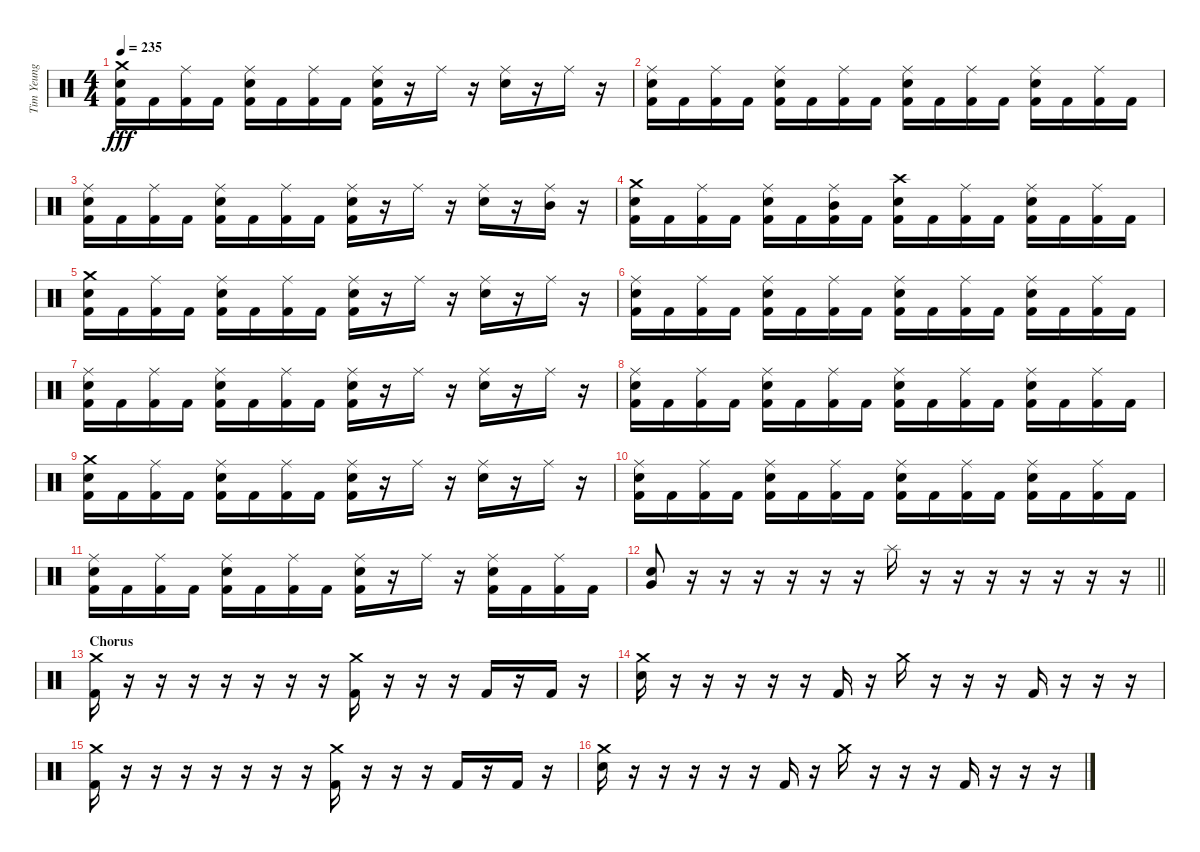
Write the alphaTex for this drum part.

\track ("Tim Yeung" "Tim Yeung") {instrument percussion}
\staff {score}
\articulation defaults
\ts (4 4)
\tempo 235
\clef neutral
\ks c
("Crash medium (hit)" "Electric Snare (hit)" "Kick (hit) 2").16{dy fff} "Kick (hit) 2".16 ("Ride (middle)" "Kick (hit) 2").16 "Kick (hit) 2".16 ("Ride (middle)" "Electric Snare (hit)" "Kick (hit) 2").16 "Kick (hit) 2".16 ("Ride (middle)" "Kick (hit) 2").16 "Kick (hit) 2".16 ("Ride (middle)" "Electric Snare (hit)" "Kick (hit) 2").16 r.16 "Ride (middle)".16 r.16 ("Ride (middle)" "Electric Snare (hit)").16 r.16 "Ride (middle)".16 r.16 |
("Ride (middle)" "Electric Snare (hit)" "Kick (hit) 2").16 "Kick (hit) 2".16 ("Ride (middle)" "Kick (hit) 2").16 "Kick (hit) 2".16 ("Ride (middle)" "Electric Snare (hit)" "Kick (hit) 2").16 "Kick (hit) 2".16 ("Ride (middle)" "Kick (hit) 2").16 "Kick (hit) 2".16 ("Ride (middle)" "Electric Snare (hit)" "Kick (hit) 2").16 "Kick (hit) 2".16 ("Ride (middle)" "Kick (hit) 2").16 "Kick (hit) 2".16 ("Ride (middle)" "Electric Snare (hit)" "Kick (hit) 2").16 "Kick (hit) 2".16 ("Ride (middle)" "Kick (hit) 2").16 "Kick (hit) 2".16 |
("Ride (middle)" "Electric Snare (hit)" "Kick (hit) 2").16 "Kick (hit) 2".16 ("Ride (middle)" "Kick (hit) 2").16 "Kick (hit) 2".16 ("Ride (middle)" "Electric Snare (hit)" "Kick (hit) 2").16 "Kick (hit) 2".16 ("Ride (middle)" "Kick (hit) 2").16 "Kick (hit) 2".16 ("Ride (middle)" "Electric Snare (hit)" "Kick (hit) 2").16 r.16 "Ride (middle)".16 r.16 ("Ride (middle)" "Electric Snare (hit)").16 r.16 ("Ride (middle)" "Mid Tom (hit)").16 r.16 |
("Crash medium (hit)" "Electric Snare (hit)" "Kick (hit) 2").16 "Kick (hit) 2".16 ("Ride (middle)" "Kick (hit) 2").16 "Kick (hit) 2".16 ("Ride (middle)" "Electric Snare (hit)" "Kick (hit) 2").16 "Kick (hit) 2".16 ("Ride (middle)" "Mid Tom (hit)" "Kick (hit) 2").16 "Kick (hit) 2".16 ("Crash high (hit)" "Electric Snare (hit)" "Kick (hit) 2").16 "Kick (hit) 2".16 ("Ride (middle)" "Kick (hit) 2").16 "Kick (hit) 2".16 ("Ride (middle)" "Electric Snare (hit)" "Kick (hit) 2").16 "Kick (hit) 2".16 ("Ride (middle)" "Kick (hit) 2").16 "Kick (hit) 2".16 |
("Crash medium (hit)" "Electric Snare (hit)" "Kick (hit) 2").16 "Kick (hit) 2".16 ("Ride (middle)" "Kick (hit) 2").16 "Kick (hit) 2".16 ("Ride (middle)" "Electric Snare (hit)" "Kick (hit) 2").16 "Kick (hit) 2".16 ("Ride (middle)" "Kick (hit) 2").16 "Kick (hit) 2".16 ("Ride (middle)" "Electric Snare (hit)" "Kick (hit) 2").16 r.16 "Ride (middle)".16 r.16 ("Ride (middle)" "Electric Snare (hit)").16 r.16 "Ride (middle)".16 r.16 |
("Ride (middle)" "Electric Snare (hit)" "Kick (hit) 2").16 "Kick (hit) 2".16 ("Ride (middle)" "Kick (hit) 2").16 "Kick (hit) 2".16 ("Ride (middle)" "Electric Snare (hit)" "Kick (hit) 2").16 "Kick (hit) 2".16 ("Ride (middle)" "Kick (hit) 2").16 "Kick (hit) 2".16 ("Ride (middle)" "Electric Snare (hit)" "Kick (hit) 2").16 "Kick (hit) 2".16 ("Ride (middle)" "Kick (hit) 2").16 "Kick (hit) 2".16 ("Ride (middle)" "Electric Snare (hit)" "Kick (hit) 2").16 "Kick (hit) 2".16 ("Ride (middle)" "Kick (hit) 2").16 "Kick (hit) 2".16 |
("Ride (middle)" "Electric Snare (hit)" "Kick (hit) 2").16 "Kick (hit) 2".16 ("Ride (middle)" "Kick (hit) 2").16 "Kick (hit) 2".16 ("Ride (middle)" "Electric Snare (hit)" "Kick (hit) 2").16 "Kick (hit) 2".16 ("Ride (middle)" "Kick (hit) 2").16 "Kick (hit) 2".16 ("Ride (middle)" "Electric Snare (hit)" "Kick (hit) 2").16 r.16 "Ride (middle)".16 r.16 ("Ride (middle)" "Electric Snare (hit)").16 r.16 "Ride (middle)".16 r.16 |
("Ride (middle)" "Electric Snare (hit)" "Kick (hit) 2").16 "Kick (hit) 2".16 ("Ride (middle)" "Kick (hit) 2").16 "Kick (hit) 2".16 ("Ride (middle)" "Electric Snare (hit)" "Kick (hit) 2").16 "Kick (hit) 2".16 ("Ride (middle)" "Kick (hit) 2").16 "Kick (hit) 2".16 ("Ride (middle)" "Electric Snare (hit)" "Kick (hit) 2").16 "Kick (hit) 2".16 ("Ride (middle)" "Kick (hit) 2").16 "Kick (hit) 2".16 ("Ride (middle)" "Electric Snare (hit)" "Kick (hit) 2").16 "Kick (hit) 2".16 ("Ride (middle)" "Kick (hit) 2").16 "Kick (hit) 2".16 |
("Crash medium (hit)" "Electric Snare (hit)" "Kick (hit) 2").16 "Kick (hit) 2".16 ("Ride (middle)" "Kick (hit) 2").16 "Kick (hit) 2".16 ("Ride (middle)" "Electric Snare (hit)" "Kick (hit) 2").16 "Kick (hit) 2".16 ("Ride (middle)" "Kick (hit) 2").16 "Kick (hit) 2".16 ("Ride (middle)" "Electric Snare (hit)" "Kick (hit) 2").16 r.16 "Ride (middle)".16 r.16 ("Ride (middle)" "Electric Snare (hit)").16 r.16 "Ride (middle)".16 r.16 |
("Ride (middle)" "Electric Snare (hit)" "Kick (hit) 2").16 "Kick (hit) 2".16 ("Ride (middle)" "Kick (hit) 2").16 "Kick (hit) 2".16 ("Ride (middle)" "Electric Snare (hit)" "Kick (hit) 2").16 "Kick (hit) 2".16 ("Ride (middle)" "Kick (hit) 2").16 "Kick (hit) 2".16 ("Ride (middle)" "Electric Snare (hit)" "Kick (hit) 2").16 "Kick (hit) 2".16 ("Ride (middle)" "Kick (hit) 2").16 "Kick (hit) 2".16 ("Ride (middle)" "Electric Snare (hit)" "Kick (hit) 2").16 "Kick (hit) 2".16 ("Ride (middle)" "Kick (hit) 2").16 "Kick (hit) 2".16 |
("Ride (middle)" "Electric Snare (hit)" "Kick (hit) 2").16 "Kick (hit) 2".16 ("Ride (middle)" "Kick (hit) 2").16 "Kick (hit) 2".16 ("Ride (middle)" "Electric Snare (hit)" "Kick (hit) 2").16 "Kick (hit) 2".16 ("Ride (middle)" "Kick (hit) 2").16 "Kick (hit) 2".16 ("Ride (middle)" "Electric Snare (hit)" "Kick (hit) 2").16 r.16 "Ride (middle)".16 r.16 ("Ride (middle)" "Electric Snare (hit)" "Kick (hit) 2").16 "Kick (hit) 2".16 ("Ride (middle)" "Kick (hit) 2").16 "Kick (hit) 2".16 |
\barLineRight lightlight
("Electric Snare (hit)" "Very Low Tom (hit)").8 r.16 r.16 r.16 r.16 r.16 r.16 "Splash (hit)".16 r.16 r.16 r.16 r.16 r.16 r.16 r.16 |
\section ("" "Chorus")
("Crash medium (hit)" "Kick (hit) 2").16 r.16 r.16 r.16 r.16 r.16 r.16 r.16 ("Crash medium (hit)" "Kick (hit) 2").16 r.16 r.16 r.16 "Kick (hit) 2".16 r.16 "Kick (hit) 2".16 r.16 |
("Crash medium (hit)" "Electric Snare (hit)").16 r.16 r.16 r.16 r.16 r.16 "Kick (hit) 2".16 r.16 "Crash medium (hit)".16 r.16 r.16 r.16 "Kick (hit) 2".16 r.16 r.16 r.16 |
("Crash medium (hit)" "Kick (hit) 2").16 r.16 r.16 r.16 r.16 r.16 r.16 r.16 ("Crash medium (hit)" "Kick (hit) 2").16 r.16 r.16 r.16 "Kick (hit) 2".16 r.16 "Kick (hit) 2".16 r.16 |
("Crash medium (hit)" "Electric Snare (hit)").16 r.16 r.16 r.16 r.16 r.16 "Kick (hit) 2".16 r.16 "Crash medium (hit)".16 r.16 r.16 r.16 "Kick (hit) 2".16 r.16 r.16 r.16
